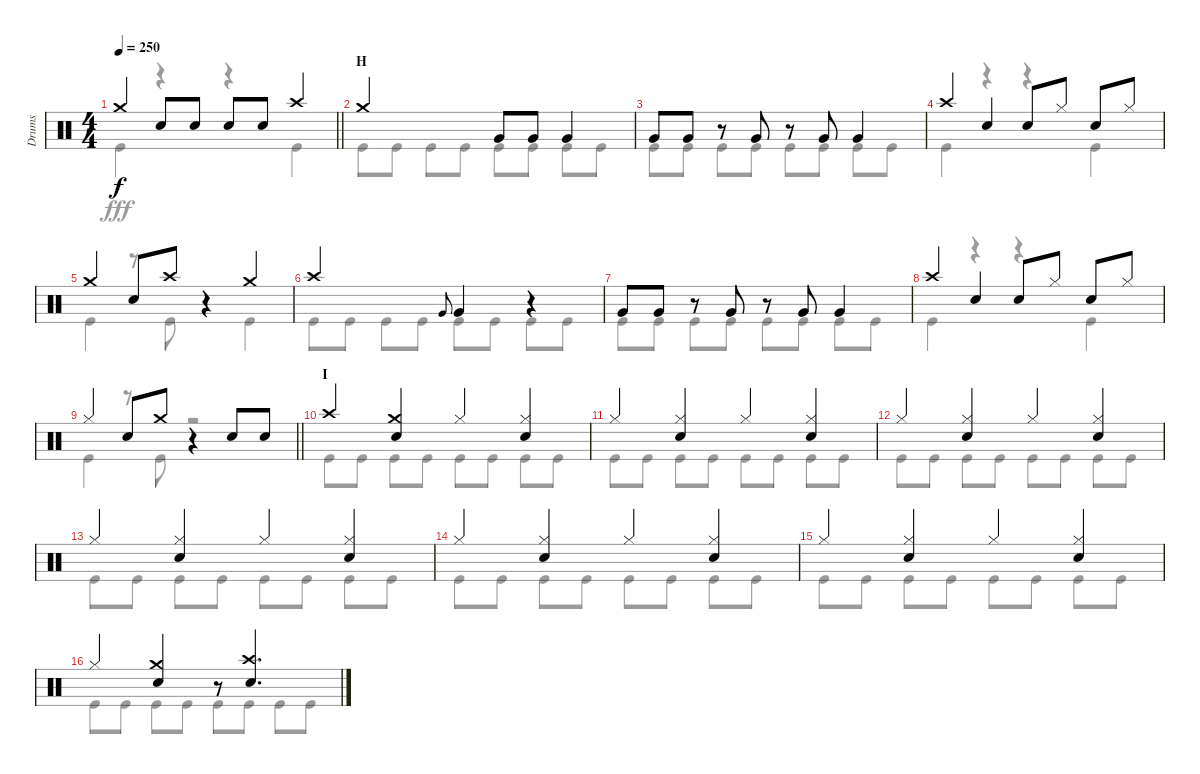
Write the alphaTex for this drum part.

\track ("Drums" "Drums") {instrument percussion}
\staff {score}
\articulation defaults
\voice
\ts (4 4)
\tempo 250
\clef neutral
\barLineRight lightlight
\ks c "Crash medium (hit)".4{dy f} "Snare (hit) 2".8 "Snare (hit) 2".8 "Snare (hit) 2".8 "Snare (hit) 2".8 "Crash high (hit)".4
|
\section ("" "H")
"Crash medium (hit)".2 "Very Low Tom (hit)".8 "Very Low Tom (hit)".8 "Very Low Tom (hit)".4 |
"Very Low Tom (hit)".8 "Very Low Tom (hit)".8 r.8 "Very Low Tom (hit)".8 r.8 "Very Low Tom (hit)".8 "Very Low Tom (hit)".4 |
"Crash high (hit)".4 "Snare (hit) 2".4 "Snare (hit) 2".8 "Hi-Hat (closed)".8 "Snare (hit) 2".8 "Hi-Hat (closed)".8 |
"Crash medium (hit)".4 "Snare (hit) 2".8 "Crash high (hit)".8 r.4 "Crash medium (hit)".4 |
"Crash high (hit)".2 "Very Low Tom (hit)".8{gr onbeat} "Very Low Tom (hit)".4 r.4 |
"Very Low Tom (hit)".8 "Very Low Tom (hit)".8 r.8 "Very Low Tom (hit)".8 r.8 "Very Low Tom (hit)".8 "Very Low Tom (hit)".4 |
"Crash high (hit)".4 "Snare (hit) 2".4 "Snare (hit) 2".8 "Hi-Hat (closed)".8 "Snare (hit) 2".8 "Hi-Hat (closed)".8 |
\barLineRight lightlight "Hi-Hat (closed)".4 "Snare (hit) 2".8 "Crash medium (hit)".8
r.4 "Snare (hit) 2".8 "Snare (hit) 2".8 |
\section ("" "I")
"Crash high (hit)".4 ("Crash medium (hit)" "Snare (hit) 2").4 "Hi-Hat (closed)".4 ("Hi-Hat (closed)" "Snare (hit) 2").4 |
"Hi-Hat (closed)".4 ("Hi-Hat (closed)" "Snare (hit) 2").4 "Hi-Hat (closed)".4 ("Hi-Hat (closed)" "Snare (hit) 2").4 |
"Hi-Hat (closed)".4 ("Hi-Hat (closed)" "Snare (hit) 2").4 "Hi-Hat (closed)".4 ("Hi-Hat (closed)" "Snare (hit) 2").4 |
"Hi-Hat (closed)".4 ("Hi-Hat (closed)" "Snare (hit) 2").4 "Hi-Hat (closed)".4 ("Hi-Hat (closed)" "Snare (hit) 2").4 |
"Hi-Hat (closed)".4 ("Hi-Hat (closed)" "Snare (hit) 2").4 "Hi-Hat (closed)".4 ("Hi-Hat (closed)" "Snare (hit) 2").4 |
"Hi-Hat (closed)".4 ("Hi-Hat (closed)" "Snare (hit) 2").4 "Hi-Hat (closed)".4 ("Hi-Hat (closed)" "Snare (hit) 2").4 |
"Hi-Hat (closed)".4 ("Crash medium (hit)" "Snare (hit) 2").4 r.8 ("Crash high (hit)" "Snare (hit) 2").4{d}
\voice
\clef neutral
\ottava regular
\simile none
\barLineRight lightlight
\ks c "Kick (hit)".4{dy fff}
r.4 r.4 "Kick (hit)".4 |
"Kick (hit)".8 "Kick (hit)".8 "Kick (hit)".8 "Kick (hit)".8 "Kick (hit)".8 "Kick (hit)".8 "Kick (hit)".8 "Kick (hit)".8 |
"Kick (hit)".8 "Kick (hit)".8 "Kick (hit)".8 "Kick (hit)".8 "Kick (hit)".8 "Kick (hit)".8 "Kick (hit)".8 "Kick (hit)".8 |
"Kick (hit)".4 r.4 r.4 "Kick (hit)".4 |
"Kick (hit)".4 r.8 "Kick (hit)".8 r.4 "Kick (hit)".4 |
"Kick (hit)".8 "Kick (hit)".8 "Kick (hit)".8 "Kick (hit)".8 "Kick (hit)".8 "Kick (hit)".8 "Kick (hit)".8 "Kick (hit)".8 |
"Kick (hit)".8 "Kick (hit)".8 "Kick (hit)".8 "Kick (hit)".8 "Kick (hit)".8 "Kick (hit)".8 "Kick (hit)".8 "Kick (hit)".8 |
"Kick (hit)".4 r.4 r.4 "Kick (hit)".4 |
\barLineRight lightlight "Kick (hit)".4
r.8 "Kick (hit)".8 r.2 |
"Kick (hit)".8 "Kick (hit)".8 "Kick (hit)".8 "Kick (hit)".8 "Kick (hit)".8 "Kick (hit)".8 "Kick (hit)".8 "Kick (hit)".8 |
"Kick (hit)".8 "Kick (hit)".8 "Kick (hit)".8 "Kick (hit)".8 "Kick (hit)".8 "Kick (hit)".8 "Kick (hit)".8 "Kick (hit)".8 |
"Kick (hit)".8 "Kick (hit)".8 "Kick (hit)".8 "Kick (hit)".8 "Kick (hit)".8 "Kick (hit)".8 "Kick (hit)".8 "Kick (hit)".8 |
"Kick (hit)".8 "Kick (hit)".8 "Kick (hit)".8 "Kick (hit)".8 "Kick (hit)".8 "Kick (hit)".8 "Kick (hit)".8 "Kick (hit)".8 |
"Kick (hit)".8 "Kick (hit)".8 "Kick (hit)".8 "Kick (hit)".8 "Kick (hit)".8 "Kick (hit)".8 "Kick (hit)".8 "Kick (hit)".8 |
"Kick (hit)".8 "Kick (hit)".8 "Kick (hit)".8 "Kick (hit)".8 "Kick (hit)".8 "Kick (hit)".8 "Kick (hit)".8 "Kick (hit)".8 |
"Kick (hit)".8 "Kick (hit)".8 "Kick (hit)".8 "Kick (hit)".8 "Kick (hit)".8 "Kick (hit)".8 "Kick (hit)".8 "Kick (hit)".8
